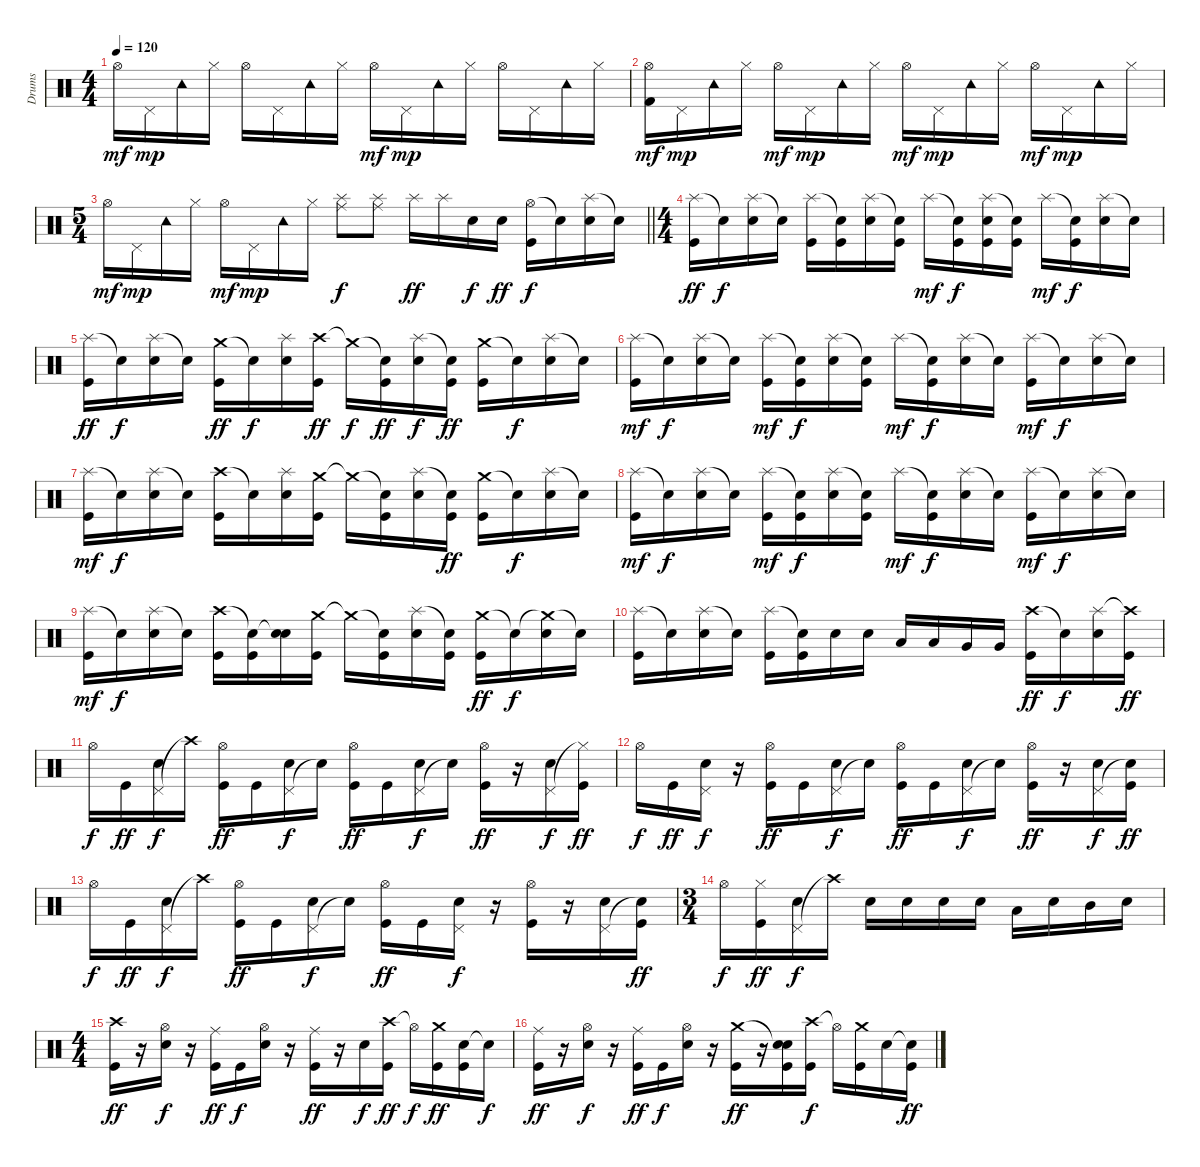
\track ("Drums" "Drums") {instrument percussion}
\staff {score}
\articulation defaults
\ts (4 4)
\tempo 120
\clef neutral
\ks c "Hi-Hat (open)".16{dy mf} "Pedal Hi-Hat (hit)".16{dy mp} "Tambourine (hit)".16 "Hi-Hat (closed)".16 "Hi-Hat (open)".16 "Pedal Hi-Hat (hit)".16 "Tambourine (hit)".16 "Hi-Hat (closed)".16 "Hi-Hat (open)".16{dy mf} "Pedal Hi-Hat (hit)".16{dy mp} "Tambourine (hit)".16 "Hi-Hat (closed)".16 "Hi-Hat (open)".16 "Pedal Hi-Hat (hit)".16 "Tambourine (hit)".16 "Hi-Hat (closed)".16
|
("Hi-Hat (open)" "Kick (hit) 2").16{dy mf} "Pedal Hi-Hat (hit)".16{dy mp} "Tambourine (hit)".16 "Hi-Hat (closed)".16 "Hi-Hat (open)".16{dy mf} "Pedal Hi-Hat (hit)".16{dy mp} "Tambourine (hit)".16 "Hi-Hat (closed)".16 "Hi-Hat (open)".16{dy mf} "Pedal Hi-Hat (hit)".16{dy mp} "Tambourine (hit)".16 "Hi-Hat (closed)".16 "Hi-Hat (open)".16{dy mf} "Pedal Hi-Hat (hit)".16{dy mp} "Tambourine (hit)".16 "Hi-Hat (closed)".16 |
\ts (5 4)
\barLineRight lightlight "Hi-Hat (open)".16{dy mf} "Pedal Hi-Hat (hit)".16{dy mp} "Tambourine (hit)".16 "Hi-Hat (closed)".16 "Hi-Hat (open)".16{dy mf} "Pedal Hi-Hat (hit)".16{dy mp} "Tambourine (hit)".16 "Hi-Hat (closed)".16
("Splash (hit)" "Ride (middle)").8{dy f} ("Splash (hit)" "Ride (middle)").8 "Splash (hit)".16{dy ff} "Splash (hit)".16 "Snare (hit) 2".16{dy f} "Snare (hit) 2".16{dy ff} ("Hi-Hat (open)" "Kick (hit)").16{dy f} "Snare (hit)"{t}.16 ("Splash (hit)" "Electric Snare (hit)").16 "Snare (hit)"{t}.16 |
\ts (4 4)
\section ("" "")
("Splash (hit)" "Kick (hit)").16{dy ff} "Snare (hit)"{t}.16{dy f} ("Splash (hit)" "Electric Snare (hit)").16 "Snare (hit)"{t}.16 ("Splash (hit)" "Kick (hit)").16 ("Snare (hit)"{t} "Kick (hit)").16 ("Splash (hit)" "Electric Snare (hit)").16 ("Snare (hit)"{t} "Kick (hit)").16 "Splash (hit)".16{dy mf} ("Snare (hit)"{t} "Kick (hit)").16{dy f} ("Splash (hit)" "Electric Snare (hit)" "Kick (hit)").16 ("Snare (hit)"{t} "Kick (hit)").16 "Splash (hit)".16{dy mf} ("Snare (hit)"{t} "Kick (hit)").16{dy f} ("Splash (hit)" "Electric Snare (hit)").16 "Snare (hit)"{t}.16 |
("Splash (hit)" "Kick (hit)").16{dy ff} "Snare (hit)"{t}.16{dy f} ("Splash (hit)" "Electric Snare (hit)").16 "Snare (hit)"{t}.16 ("Crash medium (hit)" "Kick (hit)").16{dy ff} "Snare (hit)"{t}.16{dy f} ("Splash (hit)" "Electric Snare (hit)").16 ("Crash high (hit)" "Kick (hit)").16{dy ff} "Crash medium (hit)"{t}.16{dy f} ("Snare (hit)"{t} "Kick (hit)").16{dy ff} ("Splash (hit)" "Electric Snare (hit)").16{dy f} ("Snare (hit)"{t} "Kick (hit)").16{dy ff} ("Crash medium (hit)" "Kick (hit)").16 "Snare (hit)"{t}.16{dy f} ("Splash (hit)" "Electric Snare (hit)").16 "Snare (hit)"{t}.16 |
("Splash (hit)" "Kick (hit)").16{dy mf} "Snare (hit)"{t}.16{dy f} ("Splash (hit)" "Electric Snare (hit)").16 "Snare (hit)"{t}.16 ("Splash (hit)" "Kick (hit)").16{dy mf} ("Snare (hit)"{t} "Kick (hit)").16{dy f} ("Splash (hit)" "Electric Snare (hit)").16 ("Snare (hit)"{t} "Kick (hit)").16 "Splash (hit)".16{dy mf} ("Snare (hit)"{t} "Kick (hit)").16{dy f} ("Splash (hit)" "Electric Snare (hit)").16 "Snare (hit)"{t}.16 ("Splash (hit)" "Kick (hit)").16{dy mf} "Snare (hit)"{t}.16{dy f} ("Splash (hit)" "Electric Snare (hit)").16 "Snare (hit)"{t}.16 |
("Splash (hit)" "Kick (hit)").16{dy mf} "Snare (hit)"{t}.16{dy f} ("Splash (hit)" "Electric Snare (hit)").16 "Snare (hit)"{t}.16 ("Crash high (hit)" "Kick (hit)").16 "Snare (hit)"{t}.16 ("Splash (hit)" "Electric Snare (hit)").16 ("Crash medium (hit)" "Kick (hit)").16 "Crash medium (hit)"{t}.16 ("Snare (hit)"{t} "Kick (hit)").16 ("Splash (hit)" "Electric Snare (hit)").16 ("Snare (hit)"{t} "Kick (hit)").16{dy ff} ("Crash medium (hit)" "Kick (hit)").16 "Snare (hit)"{t}.16{dy f} ("Splash (hit)" "Electric Snare (hit)").16 "Snare (hit)"{t}.16 |
("Splash (hit)" "Kick (hit)").16{dy mf} "Snare (hit)"{t}.16{dy f} ("Splash (hit)" "Electric Snare (hit)").16 "Snare (hit)"{t}.16 ("Splash (hit)" "Kick (hit)").16{dy mf} ("Snare (hit)"{t} "Kick (hit)").16{dy f} ("Splash (hit)" "Electric Snare (hit)").16 ("Snare (hit)"{t} "Kick (hit)").16 "Splash (hit)".16{dy mf} ("Snare (hit)"{t} "Kick (hit)").16{dy f} ("Splash (hit)" "Electric Snare (hit)").16 "Snare (hit)"{t}.16 ("Splash (hit)" "Kick (hit)").16{dy mf} "Snare (hit)"{t}.16{dy f} ("Splash (hit)" "Electric Snare (hit)").16 "Snare (hit)"{t}.16 |
("Splash (hit)" "Kick (hit)").16{dy mf} "Snare (hit)"{t}.16{dy f} ("Splash (hit)" "Electric Snare (hit)").16 "Snare (hit)"{t}.16 ("Crash high (hit)" "Kick (hit)").16 ("Snare (hit)"{t} "Kick (hit)").16 ("Snare (hit)"{t} "Electric Snare (hit)").16 ("Crash medium (hit)" "Kick (hit)").16 "Crash medium (hit)"{t}.16 ("Snare (hit)"{t} "Kick (hit)").16 ("Splash (hit)" "Electric Snare (hit)").16 ("Snare (hit)"{t} "Kick (hit)").16 ("Crash medium (hit)" "Kick (hit)").16{dy ff} "Snare (hit)"{t}.16{dy f} ("Crash medium (hit)"{t} "Electric Snare (hit)").16 "Snare (hit)"{t}.16 |
("Splash (hit)" "Kick (hit)").16 "Snare (hit)"{t}.16 ("Splash (hit)" "Electric Snare (hit)").16 "Snare (hit)"{t}.16 ("Splash (hit)" "Kick (hit)").16 ("Snare (hit)"{t} "Kick (hit)").16 "Snare (hit) 2".16 "Snare (hit) 2".16 "Low Tom (hit)".16 "Low Tom (hit)".16 "Very Low Tom (hit)".16 "Very Low Tom (hit)".16 ("Crash high (hit)" "Kick (hit)").16{dy ff} "Snare (hit)"{t}.16{dy f} ("Splash (hit)" "Electric Snare (hit)").16 ("Crash high (hit)"{t} "Kick (hit)").16{dy ff} |
"Hi-Hat (open)".16{dy f} "Kick (hit)".16{dy ff} ("Pedal Hi-Hat (hit)" "Electric Snare (hit)").16{dy f} "Crash high (hit)"{t}.16 ("Hi-Hat (open)" "Kick (hit)").16{dy ff} "Kick (hit)".16 ("Pedal Hi-Hat (hit)" "Electric Snare (hit)").16{dy f} "Snare (hit)"{t}.16 ("Hi-Hat (open)" "Kick (hit)").16{dy ff} "Kick (hit)".16 ("Pedal Hi-Hat (hit)" "Electric Snare (hit)").16{dy f} "Snare (hit)"{t}.16 ("Hi-Hat (open)" "Kick (hit)").16{dy ff} r.16 ("Pedal Hi-Hat (hit)" "Electric Snare (hit)").16{dy f} ("Hi-Hat (closed)"{t} "Kick (hit)").16{dy ff} |
"Hi-Hat (open)".16{dy f} "Kick (hit)".16{dy ff} ("Pedal Hi-Hat (hit)" "Electric Snare (hit)").16{dy f} r.16 ("Hi-Hat (open)" "Kick (hit)").16{dy ff} "Kick (hit)".16 ("Pedal Hi-Hat (hit)" "Electric Snare (hit)").16{dy f} "Snare (hit)"{t}.16 ("Hi-Hat (open)" "Kick (hit)").16{dy ff} "Kick (hit)".16 ("Pedal Hi-Hat (hit)" "Electric Snare (hit)").16{dy f} "Snare (hit)"{t}.16 ("Hi-Hat (open)" "Kick (hit)").16{dy ff} r.16 ("Pedal Hi-Hat (hit)" "Electric Snare (hit)").16{dy f} ("Snare (hit)"{t} "Kick (hit)").16{dy ff} |
"Hi-Hat (open)".16{dy f} "Kick (hit)".16{dy ff} ("Pedal Hi-Hat (hit)" "Electric Snare (hit)").16{dy f} "Crash high (hit)"{t}.16 ("Hi-Hat (open)" "Kick (hit)").16{dy ff} "Kick (hit)".16 ("Pedal Hi-Hat (hit)" "Electric Snare (hit)").16{dy f} "Snare (hit)"{t}.16 ("Hi-Hat (open)" "Kick (hit)").16{dy ff} "Kick (hit)".16 ("Pedal Hi-Hat (hit)" "Electric Snare (hit)").16{dy f} r.16 ("Hi-Hat (open)" "Kick (hit)").16 r.16 ("Pedal Hi-Hat (hit)" "Electric Snare (hit)").16 ("Snare (hit)"{t} "Kick (hit)").16{dy ff} |
\ts (3 4)
"Hi-Hat (open)".16{dy f} ("Hi-Hat (closed)" "Kick (hit)").16{dy ff} ("Pedal Hi-Hat (hit)" "Electric Snare (hit)").16{dy f} "Crash high (hit)"{t}.16 "Electric Snare (hit)".16 "Electric Snare (hit)".16 "Electric Snare (hit)".16 "Electric Snare (hit)".16 "Low Floor Tom (hit)".16 "Electric Snare (hit)".16 "Mid Tom (hit)".16 "Electric Snare (hit)".16 |
\ts (4 4)
("Crash high (hit)" "Kick (hit)").16{dy ff} r.16 ("Hi-Hat (open)" "Electric Snare (hit)").16{dy f} r.16 ("Ride (middle)" "Kick (hit)").16{dy ff} "Kick (hit)".16{dy f} ("Hi-Hat (open)" "Electric Snare (hit)").16 r.16 ("Ride (middle)" "Kick (hit)").16{dy ff} r.16 "Electric Snare (hit)".16{dy f} ("Crash high (hit)" "Kick (hit)").16{dy ff} "Hi-Hat (open)"{t}.16{dy f} ("Crash medium (hit)" "Kick (hit)").16{dy ff} ("Electric Snare (hit)" "Kick (hit)").16 "Snare (hit)"{t}.16{dy f} |
("Ride (middle)" "Kick (hit)").16{dy ff} r.16 ("Hi-Hat (open)" "Electric Snare (hit)").16{dy f} r.16 ("Ride (middle)" "Kick (hit)").16{dy ff} "Kick (hit)".16{dy f} ("Hi-Hat (open)" "Electric Snare (hit)").16 r.16 ("Crash medium (hit)" "Kick (hit)").16{dy ff} r.16 ("Snare (hit)"{t} "Electric Snare (hit)" "Kick (hit)").16 ("Crash high (hit)" "Kick (hit)").16{dy f} "Hi-Hat (open)"{t}.16 ("Crash medium (hit)" "Kick (hit)").16 "Electric Snare (hit)".16 ("Snare (hit)"{t} "Kick (hit)").16{dy ff}
